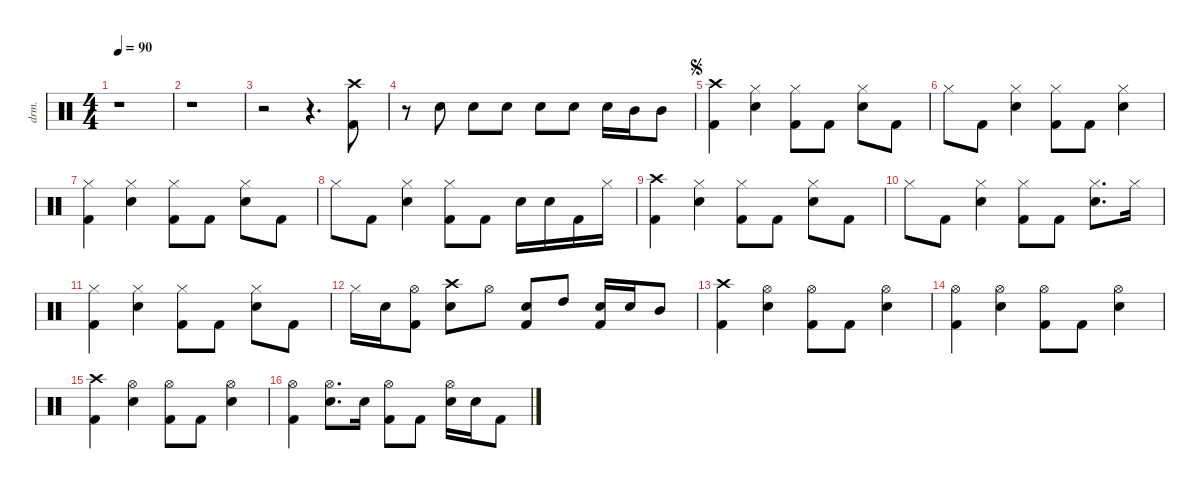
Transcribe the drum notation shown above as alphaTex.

\defaultSystemsLayout 4
\hideDynamics
\bracketExtendMode nobrackets
\otherSystemsTrackNameOrientation horizontal
\track ("Drumkit" "drm.") {instrument percussion}
\staff {score}
\articulation defaults
\ts (4 4)
\tempo 90
\clef neutral
\ks c
r.1{dy mf beam Down} |
r.1{beam Down} |
r.2{beam Down} r.4{d beam Down} ("Kick (hit) 2" "Crash high (hit)").8{beam Down} |
r.8{beam Down} "Snare (hit) 2".8{beam Down} "Snare (hit) 2".8{beam Down} "Snare (hit) 2".8{beam Down} "Snare (hit) 2".8{beam Down} "Snare (hit) 2".8{beam Down} "Snare (hit) 2".16{beam Down} "Mid Tom (hit)".16{beam Down} "Mid Tom (hit)".8{beam Down} |
\jump segno
("Kick (hit) 2" "Crash high (hit)").4{beam Down} ("Hi-Hat (closed)" "Snare (hit) 2").4{beam Down} ("Kick (hit) 2" "Hi-Hat (closed)").8{beam Down} "Kick (hit) 2".8{beam Down} ("Hi-Hat (closed)" "Snare (hit) 2").8{beam Down} "Kick (hit) 2".8{beam Down} |
"Hi-Hat (closed)".8{beam Down} "Kick (hit) 2".8{beam Down} ("Hi-Hat (closed)" "Snare (hit) 2").4{beam Down} ("Kick (hit) 2" "Hi-Hat (closed)").8{beam Down} "Kick (hit) 2".8{beam Down} ("Hi-Hat (closed)" "Snare (hit) 2").4{beam Down} |
("Kick (hit) 2" "Hi-Hat (closed)").4{beam Down} ("Hi-Hat (closed)" "Snare (hit) 2").4{beam Down} ("Kick (hit) 2" "Hi-Hat (closed)").8{beam Down} "Kick (hit) 2".8{beam Down} ("Hi-Hat (closed)" "Snare (hit) 2").8{beam Down} "Kick (hit) 2".8{beam Down} |
"Hi-Hat (closed)".8{beam Down} "Kick (hit) 2".8{beam Down} ("Hi-Hat (closed)" "Snare (hit) 2").4{beam Down} ("Kick (hit) 2" "Hi-Hat (closed)").8{beam Down} "Kick (hit) 2".8{beam Down} "Snare (hit) 2".16{beam Down} "Snare (hit) 2".16{beam Down} "Kick (hit) 2".16{beam Down} "Hi-Hat (closed)".16{beam Down} |
("Kick (hit) 2" "Crash high (hit)").4{beam Down} ("Hi-Hat (closed)" "Snare (hit) 2").4{beam Down} ("Kick (hit) 2" "Hi-Hat (closed)").8{beam Down} "Kick (hit) 2".8{beam Down} ("Hi-Hat (closed)" "Snare (hit) 2").8{beam Down} "Kick (hit) 2".8{beam Down} |
"Hi-Hat (closed)".8{beam Down} "Kick (hit) 2".8{beam Down} ("Hi-Hat (closed)" "Snare (hit) 2").4{beam Down} ("Kick (hit) 2" "Hi-Hat (closed)").8{beam Down} "Kick (hit) 2".8{beam Down} ("Hi-Hat (closed)" "Snare (hit) 2").8{d beam Down} "Hi-Hat (closed)".16{beam Down} |
("Kick (hit) 2" "Hi-Hat (closed)").4{beam Down} ("Hi-Hat (closed)" "Snare (hit) 2").4{beam Down} ("Kick (hit) 2" "Hi-Hat (closed)").8{beam Down} "Kick (hit) 2".8{beam Down} ("Hi-Hat (closed)" "Snare (hit) 2").8{beam Down} "Kick (hit) 2".8{beam Down} |
"Hi-Hat (closed)".16{beam Down} "Snare (hit) 2".16{beam Down} ("Kick (hit) 2" "Hi-Hat (open)").8{beam Down} ("Crash high (hit)" "Snare (hit) 2").8{beam Down} "Hi-Hat (open)".8{beam Down} ("Kick (hit) 2" "Snare (hit) 2").8{beam Up} "High Tom (hit)".8{beam Up} ("Snare (hit) 2" "Kick (hit) 2").16{beam Up} "Snare (hit) 2".16{beam Up} "Mid Tom (hit)".8{beam Up} |
("Crash high (hit)" "Kick (hit) 2").4{beam Down} ("Hi-Hat (open)" "Snare (hit) 2").4{beam Down} ("Hi-Hat (open)" "Kick (hit) 2").8{beam Down} "Kick (hit) 2".8{beam Down} ("Snare (hit) 2" "Hi-Hat (open)").4{beam Down} |
("Kick (hit) 2" "Hi-Hat (open)").4{beam Down} ("Hi-Hat (open)" "Snare (hit) 2").4{beam Down} ("Hi-Hat (open)" "Kick (hit) 2").8{beam Down} "Kick (hit) 2".8{beam Down} ("Snare (hit) 2" "Hi-Hat (open)").4{beam Down} |
("Crash high (hit)" "Kick (hit) 2").4{beam Down} ("Hi-Hat (open)" "Snare (hit) 2").4{beam Down} ("Hi-Hat (open)" "Kick (hit) 2").8{beam Down} "Kick (hit) 2".8{beam Down} ("Snare (hit) 2" "Hi-Hat (open)").4{beam Down} |
("Kick (hit) 2" "Hi-Hat (open)").4{beam Down} ("Hi-Hat (open)" "Snare (hit) 2").8{d beam Down} "Snare (hit) 2".16{beam Down} ("Hi-Hat (open)" "Kick (hit) 2").8{beam Down} "Kick (hit) 2".8{beam Down} ("Snare (hit) 2" "Hi-Hat (open)").16{beam Down} "Snare (hit) 2".16{beam Down} "Kick (hit) 2".8{beam Down}
